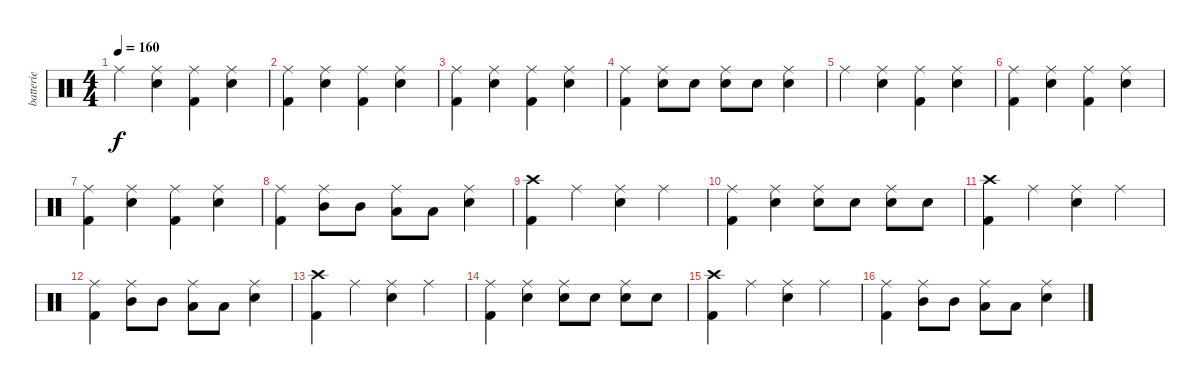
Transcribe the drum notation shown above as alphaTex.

\track ("batterie" "batterie") {instrument percussion}
\staff {score}
\articulation defaults
\ts (4 4)
\tempo 160
\clef neutral
\ks c "Ride (middle)".4{dy f}
("Ride (middle)" "Snare (hit) 2").4 ("Ride (middle)" "Kick (hit) 2").4 ("Ride (middle)" "Snare (hit) 2").4 |
("Ride (middle)" "Kick (hit) 2").4 ("Ride (middle)" "Snare (hit) 2").4 ("Ride (middle)" "Kick (hit) 2").4 ("Ride (middle)" "Snare (hit) 2").4 |
("Ride (middle)" "Kick (hit) 2").4 ("Ride (middle)" "Snare (hit) 2").4 ("Ride (middle)" "Kick (hit) 2").4 ("Ride (middle)" "Snare (hit) 2").4 |
("Ride (middle)" "Kick (hit) 2").4 ("Ride (middle)" "Snare (hit) 2").8 "Snare (hit) 2".8 ("Ride (middle)" "Snare (hit) 2").8 "Snare (hit) 2".8 ("Ride (middle)" "Snare (hit) 2").4 |
"Ride (middle)".4 ("Ride (middle)" "Snare (hit) 2").4 ("Ride (middle)" "Kick (hit) 2").4 ("Ride (middle)" "Snare (hit) 2").4 |
("Ride (middle)" "Kick (hit) 2").4 ("Ride (middle)" "Snare (hit) 2").4 ("Ride (middle)" "Kick (hit) 2").4 ("Ride (middle)" "Snare (hit) 2").4 |
("Ride (middle)" "Kick (hit) 2").4 ("Ride (middle)" "Snare (hit) 2").4 ("Ride (middle)" "Kick (hit) 2").4 ("Ride (middle)" "Snare (hit) 2").4 |
("Ride (middle)" "Kick (hit) 2").4 ("Ride (middle)" "Mid Tom (hit)").8 "Mid Tom (hit)".8 ("Ride (middle)" "Low Tom (hit)").8 "Low Tom (hit)".8 ("Ride (middle)" "Snare (hit) 2").4 |
("Crash high (hit)" "Kick (hit) 2").4 "Ride (middle)".4 ("Ride (middle)" "Snare (hit) 2").4 "Ride (middle)".4 |
("Kick (hit) 2" "Ride (middle)").4 ("Snare (hit) 2" "Ride (middle)").4 ("Snare (hit) 2" "Ride (middle)").8 "Snare (hit) 2".8 ("Snare (hit) 2" "Ride (middle)").8 "Snare (hit) 2".8 |
("Crash high (hit)" "Kick (hit) 2").4 "Ride (middle)".4 ("Ride (middle)" "Snare (hit) 2").4 "Ride (middle)".4 |
("Ride (middle)" "Kick (hit) 2").4 ("Ride (middle)" "Mid Tom (hit)").8 "Mid Tom (hit)".8 ("Ride (middle)" "Low Tom (hit)").8 "Low Tom (hit)".8 ("Ride (middle)" "Snare (hit) 2").4 |
("Crash high (hit)" "Kick (hit) 2").4 "Ride (middle)".4 ("Ride (middle)" "Snare (hit) 2").4 "Ride (middle)".4 |
("Kick (hit) 2" "Ride (middle)").4 ("Snare (hit) 2" "Ride (middle)").4 ("Snare (hit) 2" "Ride (middle)").8 "Snare (hit) 2".8 ("Snare (hit) 2" "Ride (middle)").8 "Snare (hit) 2".8 |
("Crash high (hit)" "Kick (hit) 2").4 "Ride (middle)".4 ("Ride (middle)" "Snare (hit) 2").4 "Ride (middle)".4 |
("Ride (middle)" "Kick (hit) 2").4 ("Ride (middle)" "Mid Tom (hit)").8 "Mid Tom (hit)".8 ("Ride (middle)" "Low Tom (hit)").8 "Low Tom (hit)".8 ("Ride (middle)" "Snare (hit) 2").4
